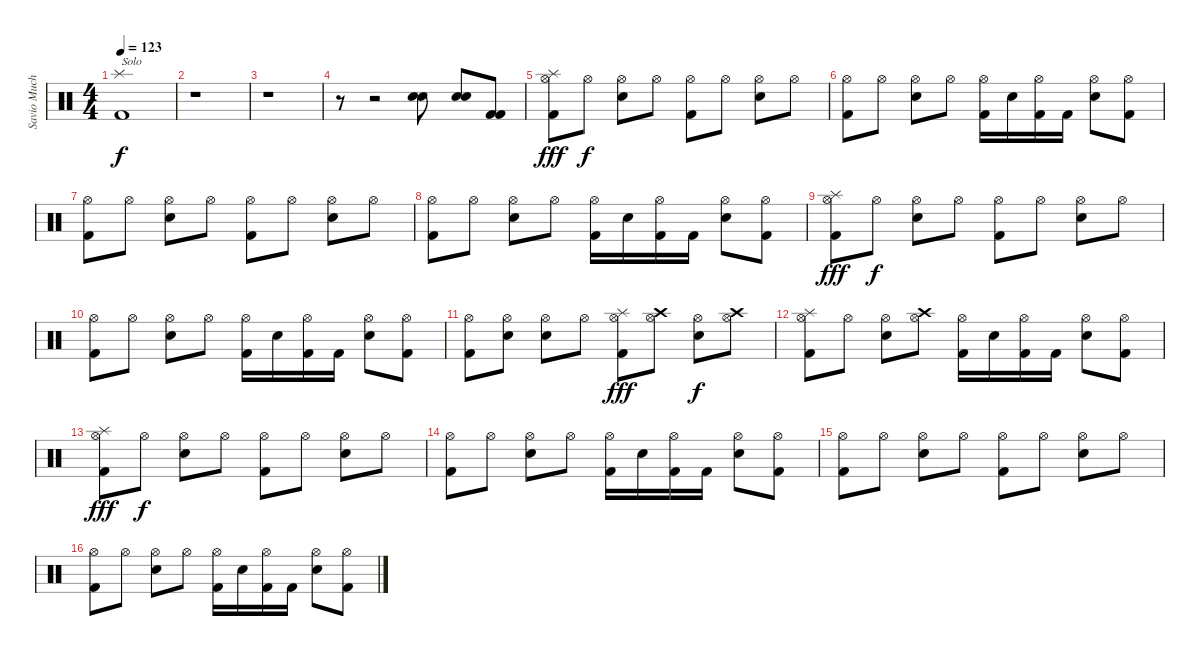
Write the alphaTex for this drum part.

\track ("Savio Muchacho (Drums)" "Savio Much") {instrument percussion}
\staff {score}
\articulation defaults
\ts (4 4)
\tempo 123
\clef neutral
\ks c
("Kick (hit) 2" "Splash (hit)").1{txt "Solo" dy f} |
r.1 |
r.1 |
r.8 r.2 ("Snare (hit) 2" "Snare (hit) 2").8 ("Snare (hit) 2" "Snare (hit) 2").8 ("Kick (hit) 2" "Kick (hit) 2").8 |
("Hi-Hat (open)" "Kick (hit) 2" "Splash (hit)").8{dy fff} "Hi-Hat (open)".8{dy f} ("Hi-Hat (open)" "Snare (hit) 2").8 "Hi-Hat (open)".8 ("Hi-Hat (open)" "Kick (hit) 2").8 "Hi-Hat (open)".8 ("Hi-Hat (open)" "Snare (hit) 2").8 "Hi-Hat (open)".8 |
("Hi-Hat (open)" "Kick (hit) 2").8 "Hi-Hat (open)".8 ("Hi-Hat (open)" "Snare (hit) 2").8 "Hi-Hat (open)".8 ("Hi-Hat (open)" "Kick (hit) 2").16 "Snare (hit) 2".16 ("Hi-Hat (open)" "Kick (hit) 2").16 "Kick (hit) 2".16 ("Hi-Hat (open)" "Snare (hit) 2").8 ("Hi-Hat (open)" "Kick (hit) 2").8 |
("Hi-Hat (open)" "Kick (hit) 2").8 "Hi-Hat (open)".8 ("Hi-Hat (open)" "Snare (hit) 2").8 "Hi-Hat (open)".8 ("Hi-Hat (open)" "Kick (hit) 2").8 "Hi-Hat (open)".8 ("Hi-Hat (open)" "Snare (hit) 2").8 "Hi-Hat (open)".8 |
("Hi-Hat (open)" "Kick (hit) 2").8 "Hi-Hat (open)".8 ("Hi-Hat (open)" "Snare (hit) 2").8 "Hi-Hat (open)".8 ("Hi-Hat (open)" "Kick (hit) 2").16 "Snare (hit) 2".16 ("Hi-Hat (open)" "Kick (hit) 2").16 "Kick (hit) 2".16 ("Hi-Hat (open)" "Snare (hit) 2").8 ("Hi-Hat (open)" "Kick (hit) 2").8 |
("Hi-Hat (open)" "Kick (hit) 2" "Splash (hit)").8{dy fff} "Hi-Hat (open)".8{dy f} ("Hi-Hat (open)" "Snare (hit) 2").8 "Hi-Hat (open)".8 ("Hi-Hat (open)" "Kick (hit) 2").8 "Hi-Hat (open)".8 ("Hi-Hat (open)" "Snare (hit) 2").8 "Hi-Hat (open)".8 |
("Hi-Hat (open)" "Kick (hit) 2").8 "Hi-Hat (open)".8 ("Hi-Hat (open)" "Snare (hit) 2").8 "Hi-Hat (open)".8 ("Hi-Hat (open)" "Kick (hit) 2").16 "Snare (hit) 2".16 ("Hi-Hat (open)" "Kick (hit) 2").16 "Kick (hit) 2".16 ("Hi-Hat (open)" "Snare (hit) 2").8 ("Hi-Hat (open)" "Kick (hit) 2").8 |
("Hi-Hat (open)" "Kick (hit) 2").8 ("Hi-Hat (open)" "Snare (hit) 2").8 ("Hi-Hat (open)" "Snare (hit) 2").8 "Hi-Hat (open)".8 ("Hi-Hat (open)" "Kick (hit) 2" "Splash (hit)").8{dy fff} ("Hi-Hat (open)" "Crash high (hit)").8 ("Hi-Hat (open)" "Snare (hit) 2").8{dy f} ("Hi-Hat (open)" "Crash high (hit)").8 |
("Hi-Hat (open)" "Kick (hit) 2" "Splash (hit)").8 "Hi-Hat (open)".8 ("Hi-Hat (open)" "Snare (hit) 2").8 ("Hi-Hat (open)" "Crash high (hit)").8 ("Hi-Hat (open)" "Kick (hit) 2").16 "Snare (hit) 2".16 ("Hi-Hat (open)" "Kick (hit) 2").16 "Kick (hit) 2".16 ("Hi-Hat (open)" "Snare (hit) 2").8 ("Hi-Hat (open)" "Kick (hit) 2").8 |
("Hi-Hat (open)" "Kick (hit) 2" "Splash (hit)").8{dy fff} "Hi-Hat (open)".8{dy f} ("Hi-Hat (open)" "Snare (hit) 2").8 "Hi-Hat (open)".8 ("Hi-Hat (open)" "Kick (hit) 2").8 "Hi-Hat (open)".8 ("Hi-Hat (open)" "Snare (hit) 2").8 "Hi-Hat (open)".8 |
("Hi-Hat (open)" "Kick (hit) 2").8 "Hi-Hat (open)".8 ("Hi-Hat (open)" "Snare (hit) 2").8 "Hi-Hat (open)".8 ("Hi-Hat (open)" "Kick (hit) 2").16 "Snare (hit) 2".16 ("Hi-Hat (open)" "Kick (hit) 2").16 "Kick (hit) 2".16 ("Hi-Hat (open)" "Snare (hit) 2").8 ("Hi-Hat (open)" "Kick (hit) 2").8 |
("Hi-Hat (open)" "Kick (hit) 2").8 "Hi-Hat (open)".8 ("Hi-Hat (open)" "Snare (hit) 2").8 "Hi-Hat (open)".8 ("Hi-Hat (open)" "Kick (hit) 2").8 "Hi-Hat (open)".8 ("Hi-Hat (open)" "Snare (hit) 2").8 "Hi-Hat (open)".8 |
("Hi-Hat (open)" "Kick (hit) 2").8 "Hi-Hat (open)".8 ("Hi-Hat (open)" "Snare (hit) 2").8 "Hi-Hat (open)".8 ("Hi-Hat (open)" "Kick (hit) 2").16 "Snare (hit) 2".16 ("Hi-Hat (open)" "Kick (hit) 2").16 "Kick (hit) 2".16 ("Hi-Hat (open)" "Snare (hit) 2").8 ("Hi-Hat (open)" "Kick (hit) 2").8
